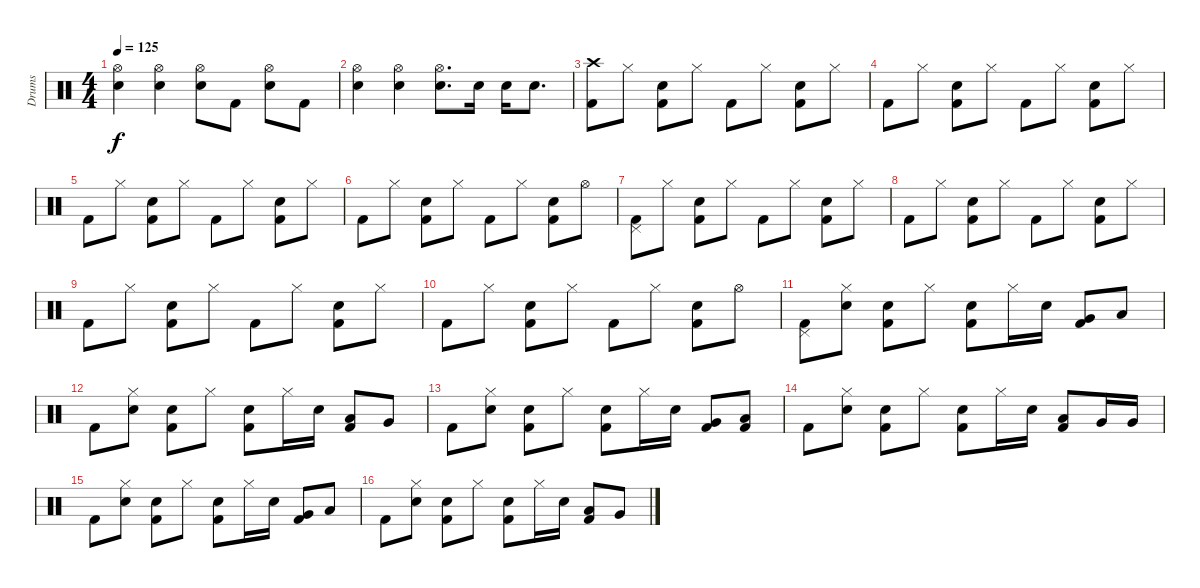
\track ("Drums" "Drums") {instrument percussion}
\staff {score}
\articulation defaults
\ts (4 4)
\tempo 125
\clef neutral
\ks c
("Hi-Hat (open)" "Electric Snare (hit)").4{dy f} ("Hi-Hat (open)" "Electric Snare (hit)").4 ("Hi-Hat (open)" "Electric Snare (hit)").8 "Kick (hit) 2".8 ("Hi-Hat (open)" "Electric Snare (hit)").8 "Kick (hit) 2".8 |
("Hi-Hat (open)" "Electric Snare (hit)").4 ("Hi-Hat (open)" "Electric Snare (hit)").4 ("Hi-Hat (open)" "Electric Snare (hit)").8{d} "Electric Snare (hit)".16 "Electric Snare (hit)".16 "Electric Snare (hit)".8{d} |
("Crash high (hit)" "Kick (hit) 2").8 "Hi-Hat (closed)".8 ("Electric Snare (hit)" "Kick (hit) 2").8 "Hi-Hat (closed)".8 "Kick (hit) 2".8 "Hi-Hat (closed)".8 ("Electric Snare (hit)" "Kick (hit) 2").8 "Hi-Hat (closed)".8 |
"Kick (hit) 2".8 "Hi-Hat (closed)".8 ("Electric Snare (hit)" "Kick (hit) 2").8 "Hi-Hat (closed)".8 "Kick (hit) 2".8 "Hi-Hat (closed)".8 ("Electric Snare (hit)" "Kick (hit) 2").8 "Hi-Hat (closed)".8 |
"Kick (hit) 2".8 "Hi-Hat (closed)".8 ("Electric Snare (hit)" "Kick (hit) 2").8 "Hi-Hat (closed)".8 "Kick (hit) 2".8 "Hi-Hat (closed)".8 ("Electric Snare (hit)" "Kick (hit) 2").8 "Hi-Hat (closed)".8 |
"Kick (hit) 2".8 "Hi-Hat (closed)".8 ("Electric Snare (hit)" "Kick (hit) 2").8 "Hi-Hat (closed)".8 "Kick (hit) 2".8 "Hi-Hat (closed)".8 ("Electric Snare (hit)" "Kick (hit) 2").8 "Hi-Hat (open)".8 |
("Pedal Hi-Hat (hit)" "Kick (hit) 2").8 "Hi-Hat (closed)".8 ("Electric Snare (hit)" "Kick (hit) 2").8 "Hi-Hat (closed)".8 "Kick (hit) 2".8 "Hi-Hat (closed)".8 ("Electric Snare (hit)" "Kick (hit) 2").8 "Hi-Hat (closed)".8 |
"Kick (hit) 2".8 "Hi-Hat (closed)".8 ("Electric Snare (hit)" "Kick (hit) 2").8 "Hi-Hat (closed)".8 "Kick (hit) 2".8 "Hi-Hat (closed)".8 ("Electric Snare (hit)" "Kick (hit) 2").8 "Hi-Hat (closed)".8 |
"Kick (hit) 2".8 "Hi-Hat (closed)".8 ("Electric Snare (hit)" "Kick (hit) 2").8 "Hi-Hat (closed)".8 "Kick (hit) 2".8 "Hi-Hat (closed)".8 ("Electric Snare (hit)" "Kick (hit) 2").8 "Hi-Hat (closed)".8 |
"Kick (hit) 2".8 "Hi-Hat (closed)".8 ("Electric Snare (hit)" "Kick (hit) 2").8 "Hi-Hat (closed)".8 "Kick (hit) 2".8 "Hi-Hat (closed)".8 ("Electric Snare (hit)" "Kick (hit) 2").8 "Hi-Hat (open)".8 |
("Pedal Hi-Hat (hit)" "Kick (hit) 2").8 ("Hi-Hat (closed)" "Electric Snare (hit)").8 ("Electric Snare (hit)" "Kick (hit) 2").8 "Hi-Hat (closed)".8 ("Electric Snare (hit)" "Kick (hit) 2").8 "Hi-Hat (closed)".16 "Electric Snare (hit)".16 ("Very Low Tom (hit)" "Kick (hit) 2").8 "Low Floor Tom (hit)".8 |
"Kick (hit) 2".8 ("Hi-Hat (closed)" "Electric Snare (hit)").8 ("Electric Snare (hit)" "Kick (hit) 2").8 "Hi-Hat (closed)".8 ("Electric Snare (hit)" "Kick (hit) 2").8 "Hi-Hat (closed)".16 "Electric Snare (hit)".16 ("Low Floor Tom (hit)" "Kick (hit) 2").8 "Very Low Tom (hit)".8 |
"Kick (hit) 2".8 ("Hi-Hat (closed)" "Electric Snare (hit)").8 ("Electric Snare (hit)" "Kick (hit) 2").8 "Hi-Hat (closed)".8 ("Electric Snare (hit)" "Kick (hit) 2").8 "Hi-Hat (closed)".16 "Electric Snare (hit)".16 ("Very Low Tom (hit)" "Kick (hit) 2").8 ("Low Floor Tom (hit)" "Kick (hit) 2").8 |
"Kick (hit) 2".8 ("Hi-Hat (closed)" "Electric Snare (hit)").8 ("Electric Snare (hit)" "Kick (hit) 2").8 "Hi-Hat (closed)".8 ("Electric Snare (hit)" "Kick (hit) 2").8 "Hi-Hat (closed)".16 "Electric Snare (hit)".16 ("Low Floor Tom (hit)" "Kick (hit) 2").8 "Very Low Tom (hit)".16 "Very Low Tom (hit)".16 |
"Kick (hit) 2".8 ("Hi-Hat (closed)" "Electric Snare (hit)").8 ("Electric Snare (hit)" "Kick (hit) 2").8 "Hi-Hat (closed)".8 ("Electric Snare (hit)" "Kick (hit) 2").8 "Hi-Hat (closed)".16 "Electric Snare (hit)".16 ("Very Low Tom (hit)" "Kick (hit) 2").8 "Low Floor Tom (hit)".8 |
"Kick (hit) 2".8 ("Hi-Hat (closed)" "Electric Snare (hit)").8 ("Electric Snare (hit)" "Kick (hit) 2").8 "Hi-Hat (closed)".8 ("Electric Snare (hit)" "Kick (hit) 2").8 "Hi-Hat (closed)".16 "Electric Snare (hit)".16 ("Low Floor Tom (hit)" "Kick (hit) 2").8 "Very Low Tom (hit)".8
